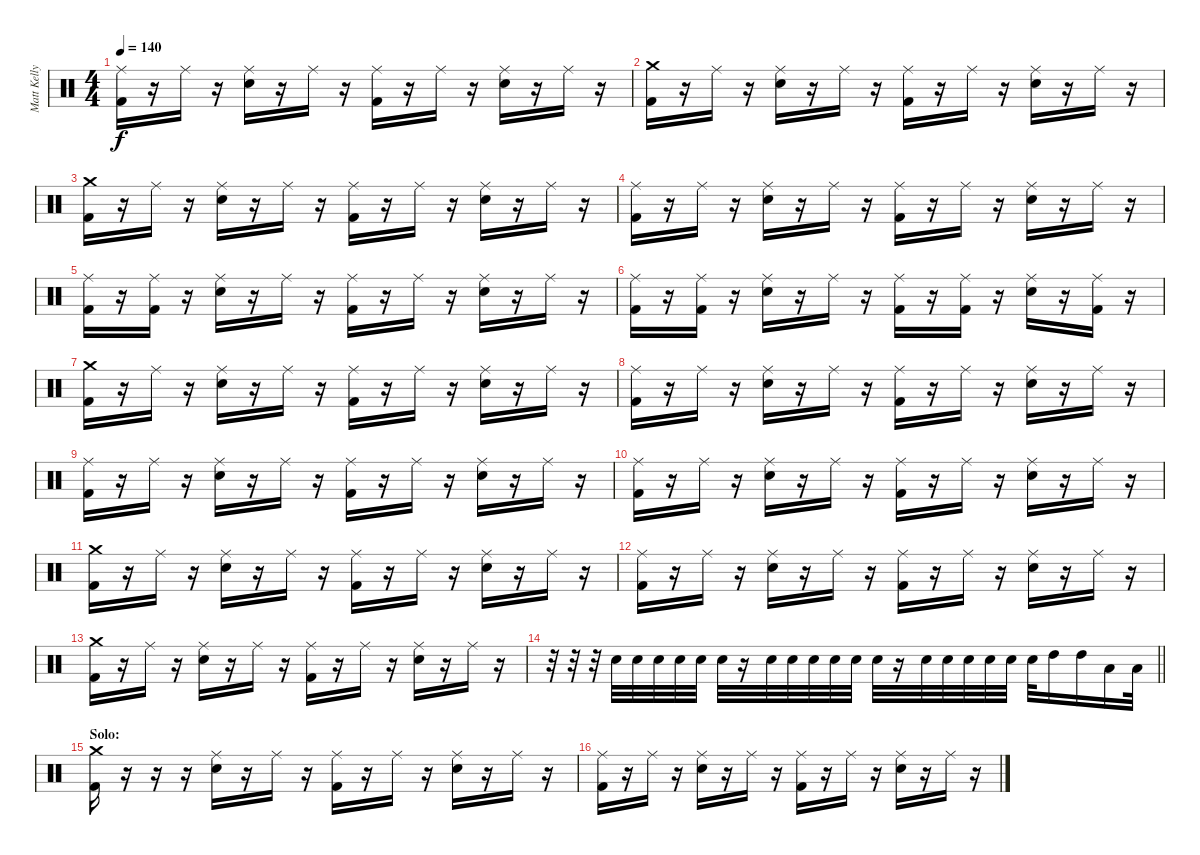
\track ("Matt Kelly" "Matt Kelly") {instrument percussion}
\staff {score}
\articulation defaults
\ts (4 4)
\tempo 140
\clef neutral
\ks c
("Ride (middle)" "Kick (hit) 2").16{dy f} r.16 "Ride (middle)".16 r.16 ("Ride (middle)" "Snare (hit) 2").16 r.16 "Ride (middle)".16 r.16 ("Ride (middle)" "Kick (hit) 2").16 r.16 "Ride (middle)".16 r.16 ("Ride (middle)" "Snare (hit) 2").16 r.16 "Ride (middle)".16 r.16 |
("Crash medium (hit)" "Kick (hit) 2").16 r.16 "Ride (middle)".16 r.16 ("Ride (middle)" "Snare (hit) 2").16 r.16 "Ride (middle)".16 r.16 ("Ride (middle)" "Kick (hit) 2").16 r.16 "Ride (middle)".16 r.16 ("Ride (middle)" "Snare (hit) 2").16 r.16 "Ride (middle)".16 r.16 |
("Crash medium (hit)" "Kick (hit) 2").16 r.16 "Ride (middle)".16 r.16 ("Ride (middle)" "Snare (hit) 2").16 r.16 "Ride (middle)".16 r.16 ("Ride (middle)" "Kick (hit) 2").16 r.16 "Ride (middle)".16 r.16 ("Ride (middle)" "Snare (hit) 2").16 r.16 "Ride (middle)".16 r.16 |
("Ride (middle)" "Kick (hit) 2").16 r.16 "Ride (middle)".16 r.16 ("Ride (middle)" "Snare (hit) 2").16 r.16 "Ride (middle)".16 r.16 ("Ride (middle)" "Kick (hit) 2").16 r.16 "Ride (middle)".16 r.16 ("Ride (middle)" "Snare (hit) 2").16 r.16 "Ride (middle)".16 r.16 |
("Ride (middle)" "Kick (hit) 2").16 r.16 ("Ride (middle)" "Kick (hit) 2").16 r.16 ("Ride (middle)" "Snare (hit) 2").16 r.16 "Ride (middle)".16 r.16 ("Ride (middle)" "Kick (hit) 2").16 r.16 "Ride (middle)".16 r.16 ("Ride (middle)" "Snare (hit) 2").16 r.16 "Ride (middle)".16 r.16 |
("Ride (middle)" "Kick (hit) 2").16 r.16 ("Ride (middle)" "Kick (hit) 2").16 r.16 ("Ride (middle)" "Snare (hit) 2").16 r.16 "Ride (middle)".16 r.16 ("Ride (middle)" "Kick (hit) 2").16 r.16 ("Ride (middle)" "Kick (hit) 2").16 r.16 ("Ride (middle)" "Snare (hit) 2").16 r.16 ("Ride (middle)" "Kick (hit) 2").16 r.16 |
("Crash medium (hit)" "Kick (hit) 2").16 r.16 "Ride (middle)".16 r.16 ("Ride (middle)" "Snare (hit) 2").16 r.16 "Ride (middle)".16 r.16 ("Ride (middle)" "Kick (hit) 2").16 r.16 "Ride (middle)".16 r.16 ("Ride (middle)" "Snare (hit) 2").16 r.16 "Ride (middle)".16 r.16 |
("Ride (middle)" "Kick (hit) 2").16 r.16 "Ride (middle)".16 r.16 ("Ride (middle)" "Snare (hit) 2").16 r.16 "Ride (middle)".16 r.16 ("Ride (middle)" "Kick (hit) 2").16 r.16 "Ride (middle)".16 r.16 ("Ride (middle)" "Snare (hit) 2").16 r.16 "Ride (middle)".16 r.16 |
("Ride (middle)" "Kick (hit) 2").16 r.16 "Ride (middle)".16 r.16 ("Ride (middle)" "Snare (hit) 2").16 r.16 "Ride (middle)".16 r.16 ("Ride (middle)" "Kick (hit) 2").16 r.16 "Ride (middle)".16 r.16 ("Ride (middle)" "Snare (hit) 2").16 r.16 "Ride (middle)".16 r.16 |
("Ride (middle)" "Kick (hit) 2").16 r.16 "Ride (middle)".16 r.16 ("Ride (middle)" "Snare (hit) 2").16 r.16 "Ride (middle)".16 r.16 ("Ride (middle)" "Kick (hit) 2").16 r.16 "Ride (middle)".16 r.16 ("Ride (middle)" "Snare (hit) 2").16 r.16 "Ride (middle)".16 r.16 |
("Crash medium (hit)" "Kick (hit) 2").16 r.16 "Ride (middle)".16 r.16 ("Ride (middle)" "Snare (hit) 2").16 r.16 "Ride (middle)".16 r.16 ("Ride (middle)" "Kick (hit) 2").16 r.16 "Ride (middle)".16 r.16 ("Ride (middle)" "Snare (hit) 2").16 r.16 "Ride (middle)".16 r.16 |
("Ride (middle)" "Kick (hit) 2").16 r.16 "Ride (middle)".16 r.16 ("Ride (middle)" "Snare (hit) 2").16 r.16 "Ride (middle)".16 r.16 ("Ride (middle)" "Kick (hit) 2").16 r.16 "Ride (middle)".16 r.16 ("Ride (middle)" "Snare (hit) 2").16 r.16 "Ride (middle)".16 r.16 |
("Crash medium (hit)" "Kick (hit) 2").16 r.16 "Ride (middle)".16 r.16 ("Ride (middle)" "Snare (hit) 2").16 r.16 "Ride (middle)".16 r.16 ("Ride (middle)" "Kick (hit) 2").16 r.16 "Ride (middle)".16 r.16 ("Ride (middle)" "Snare (hit) 2").16 r.16 "Ride (middle)".16 r.16 |
\barLineRight lightlight
r.32 r.32 r.32 "Electric Snare (hit)".32 "Electric Snare (hit)".32 "Electric Snare (hit)".32 "Electric Snare (hit)".32 "Electric Snare (hit)".32 "Snare (hit) 2".32 r.16 "Electric Snare (hit)".32 "Electric Snare (hit)".32 "Electric Snare (hit)".32 "Electric Snare (hit)".32 "Electric Snare (hit)".32 "Snare (hit) 2".32 r.16 "Electric Snare (hit)".32 "Electric Snare (hit)".32 "Electric Snare (hit)".32 "Electric Snare (hit)".32 "Electric Snare (hit)".32 "Snare (hit) 2".32 "High Tom (hit)".16 "High Tom (hit)".16 "Low Tom (hit)".16 "Low Floor Tom (hit)".32 |
\section ("" "Solo:")
("Crash medium (hit)" "Kick (hit) 2").16 r.16 r.16 r.16 ("Ride (middle)" "Snare (hit) 2").16 r.16 "Ride (middle)".16 r.16 ("Ride (middle)" "Kick (hit) 2").16 r.16 "Ride (middle)".16 r.16 ("Ride (middle)" "Snare (hit) 2").16 r.16 "Ride (middle)".16 r.16 |
("Ride (middle)" "Kick (hit) 2").16 r.16 "Ride (middle)".16 r.16 ("Ride (middle)" "Snare (hit) 2").16 r.16 "Ride (middle)".16 r.16 ("Ride (middle)" "Kick (hit) 2").16 r.16 "Ride (middle)".16 r.16 ("Ride (middle)" "Snare (hit) 2").16 r.16 "Ride (middle)".16 r.16
